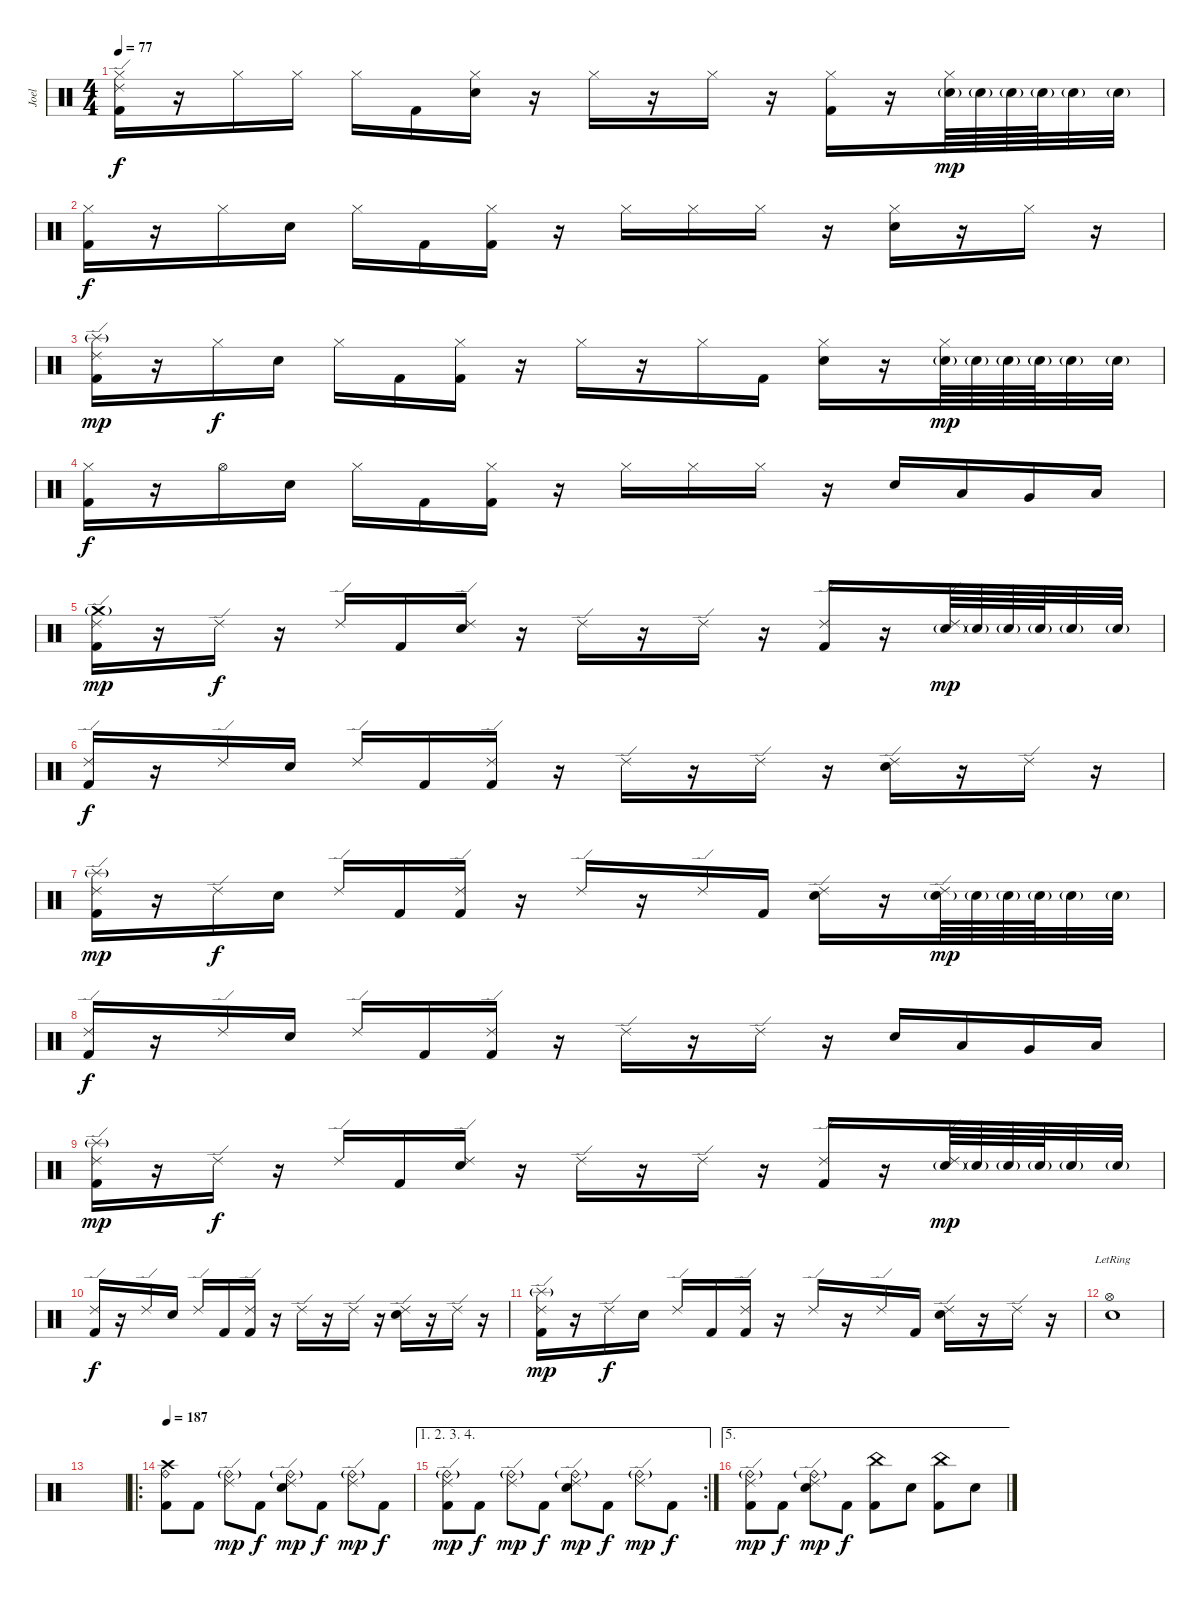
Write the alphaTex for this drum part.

\track ("Joel" "Joel") {instrument percussion}
\staff {score}
\articulation defaults
\ts (4 4)
\tempo 77
\clef neutral
\ks c
("Ride (edge) 2" "Hi-Hat (closed)" "Kick (hit) 2").16{dy f} r.16 "Hi-Hat (closed)".16 "Hi-Hat (closed)".16 "Hi-Hat (closed)".16 "Kick (hit) 2".16 ("Hi-Hat (closed)" "Snare (hit) 2").16 r.16 "Hi-Hat (closed)".16 r.16 "Hi-Hat (closed)".16 r.16 ("Hi-Hat (closed)" "Kick (hit) 2").16 r.16 ("Hi-Hat (closed)" "Snare (hit) 2"{g}).64{dy mp} "Snare (hit) 2"{g}.64 "Snare (hit) 2"{g}.64 "Snare (hit) 2"{g}.64 "Snare (hit) 2"{g}.32 "Snare (hit) 2"{g}.32 |
("Hi-Hat (closed)" "Kick (hit) 2").16{dy f} r.16 "Hi-Hat (closed)".16 "Snare (hit) 2".16 "Hi-Hat (closed)".16 "Kick (hit) 2".16 ("Hi-Hat (closed)" "Kick (hit) 2").16 r.16 "Hi-Hat (closed)".16 "Hi-Hat (closed)".16 "Hi-Hat (closed)".16 r.16 ("Hi-Hat (closed)" "Snare (hit) 2").16 r.16 "Hi-Hat (closed)".16 r.16 |
("Ride (edge) 2" "Splash (hit)"{g} "Kick (hit) 2").16{dy mp} r.16 "Hi-Hat (closed)".16{dy f} "Snare (hit) 2".16 "Hi-Hat (closed)".16 "Kick (hit) 2".16 ("Hi-Hat (closed)" "Kick (hit) 2").16 r.16 "Hi-Hat (closed)".16 r.16 "Hi-Hat (closed)".16 "Kick (hit) 2".16 ("Hi-Hat (closed)" "Snare (hit) 2").16 r.16 ("Hi-Hat (closed)" "Snare (hit) 2"{g}).64{dy mp} "Snare (hit) 2"{g}.64 "Snare (hit) 2"{g}.64 "Snare (hit) 2"{g}.64 "Snare (hit) 2"{g}.32 "Snare (hit) 2"{g}.32 |
("Hi-Hat (closed)" "Kick (hit) 2").16{dy f} r.16 "Hi-Hat (open)".16 "Snare (hit) 2".16 "Hi-Hat (closed)".16 "Kick (hit) 2".16 ("Hi-Hat (closed)" "Kick (hit) 2").16 r.16 "Hi-Hat (closed)".16 "Hi-Hat (closed)".16 "Hi-Hat (closed)".16 r.16 "Snare (hit) 2".16 "Low Tom (hit)".16 "Very Low Tom (hit)".16 "Low Floor Tom (hit)".16 |
("Ride (edge) 2" "Crash medium (hit)"{g} "Kick (hit) 2").16{dy mp} r.16 "Ride (edge) 2".16{dy f} r.16 "Ride (edge) 2".16 "Kick (hit) 2".16 ("Ride (edge) 2" "Snare (hit) 2").16 r.16 "Ride (edge) 2".16 r.16 "Ride (edge) 2".16 r.16 ("Ride (edge) 2" "Kick (hit) 2").16 r.16 ("Ride (edge) 2" "Snare (hit) 2"{g}).64{dy mp} "Snare (hit) 2"{g}.64 "Snare (hit) 2"{g}.64 "Snare (hit) 2"{g}.64 "Snare (hit) 2"{g}.32 "Snare (hit) 2"{g}.32 |
("Ride (edge) 2" "Kick (hit) 2").16{dy f} r.16 "Ride (edge) 2".16 "Snare (hit) 2".16 "Ride (edge) 2".16 "Kick (hit) 2".16 ("Ride (edge) 2" "Kick (hit) 2").16 r.16 "Ride (edge) 2".16 r.16 "Ride (edge) 2".16 r.16 ("Ride (edge) 2" "Snare (hit) 2").16 r.16 "Ride (edge) 2".16 r.16 |
("Ride (edge) 2" "Splash (hit)"{g} "Kick (hit) 2").16{dy mp} r.16 "Ride (edge) 2".16{dy f} "Snare (hit) 2".16 "Ride (edge) 2".16 "Kick (hit) 2".16 ("Ride (edge) 2" "Kick (hit) 2").16 r.16 "Ride (edge) 2".16 r.16 "Ride (edge) 2".16 "Kick (hit) 2".16 ("Ride (edge) 2" "Snare (hit) 2").16 r.16 ("Ride (edge) 2" "Snare (hit) 2"{g}).64{dy mp} "Snare (hit) 2"{g}.64 "Snare (hit) 2"{g}.64 "Snare (hit) 2"{g}.64 "Snare (hit) 2"{g}.32 "Snare (hit) 2"{g}.32 |
("Ride (edge) 2" "Kick (hit) 2").16{dy f} r.16 "Ride (edge) 2".16 "Snare (hit) 2".16 "Ride (edge) 2".16 "Kick (hit) 2".16 ("Ride (edge) 2" "Kick (hit) 2").16 r.16 "Ride (edge) 2".16 r.16 "Ride (edge) 2".16 r.16 "Snare (hit) 2".16 "Low Tom (hit)".16 "Very Low Tom (hit)".16 "Low Floor Tom (hit)".16 |
("Ride (edge) 2" "Splash (hit)"{g} "Kick (hit) 2").16{dy mp} r.16 "Ride (edge) 2".16{dy f} r.16 "Ride (edge) 2".16 "Kick (hit) 2".16 ("Ride (edge) 2" "Snare (hit) 2").16 r.16 "Ride (edge) 2".16 r.16 "Ride (edge) 2".16 r.16 ("Ride (edge) 2" "Kick (hit) 2").16 r.16 ("Ride (edge) 2" "Snare (hit) 2"{g}).64{dy mp} "Snare (hit) 2"{g}.64 "Snare (hit) 2"{g}.64 "Snare (hit) 2"{g}.64 "Snare (hit) 2"{g}.32 "Snare (hit) 2"{g}.32 |
("Ride (edge) 2" "Kick (hit) 2").16{dy f} r.16 "Ride (edge) 2".16 "Snare (hit) 2".16 "Ride (edge) 2".16 "Kick (hit) 2".16 ("Ride (edge) 2" "Kick (hit) 2").16 r.16 "Ride (edge) 2".16 r.16 "Ride (edge) 2".16 r.16 ("Ride (edge) 2" "Snare (hit) 2").16 r.16 "Ride (edge) 2".16 r.16 |
("Ride (edge) 2" "Splash (hit)"{g} "Kick (hit) 2").16{dy mp} r.16 "Ride (edge) 2".16{dy f} "Snare (hit) 2".16 "Ride (edge) 2".16 "Kick (hit) 2".16 ("Ride (edge) 2" "Kick (hit) 2").16 r.16 "Ride (edge) 2".16 r.16 "Ride (edge) 2".16 "Kick (hit) 2".16 ("Ride (edge) 2" "Snare (hit) 2").16 r.16 "Ride (edge) 2".16 r.16 |
("Hi-Hat (open)"{lr} "Snare (hit) 2").1 |
|
\ro
\tempo 187
("Crash high (hit)" "Ride (bell)" "Kick (hit) 2").8 "Kick (hit) 2".8 ("Ride (bell)"{g} "Ride (edge) 2").8{dy mp} "Kick (hit) 2".8{dy f} ("Ride (bell)"{g} "Ride (edge) 2" "Snare (hit) 2").8{dy mp} "Kick (hit) 2".8{dy f} ("Ride (bell)"{g} "Ride (edge) 2").8{dy mp} "Kick (hit) 2".8{dy f} |
\ae (1 2 3 4)
\rc 2
("Ride (bell)"{g} "Ride (edge) 2" "Kick (hit) 2").8{dy mp} "Kick (hit) 2".8{dy f} ("Ride (bell)"{g} "Ride (edge) 2").8{dy mp} "Kick (hit) 2".8{dy f} ("Ride (bell)"{g} "Ride (edge) 2" "Snare (hit) 2").8{dy mp} "Kick (hit) 2".8{dy f} ("Ride (bell)"{g} "Ride (edge) 2").8{dy mp} "Kick (hit) 2".8{dy f} |
\ae 5
("Ride (bell)"{g} "Ride (edge) 2" "Kick (hit) 2").8{dy mp} "Kick (hit) 2".8{dy f} ("Ride (bell)"{g} "Ride (edge) 2" "Snare (hit) 2").8{dy mp} "Kick (hit) 2".8{dy f} ("China (hit)" "Kick (hit) 2").8 "Snare (hit) 2".8 ("China (hit)" "Kick (hit) 2").8 "Snare (hit) 2".8
